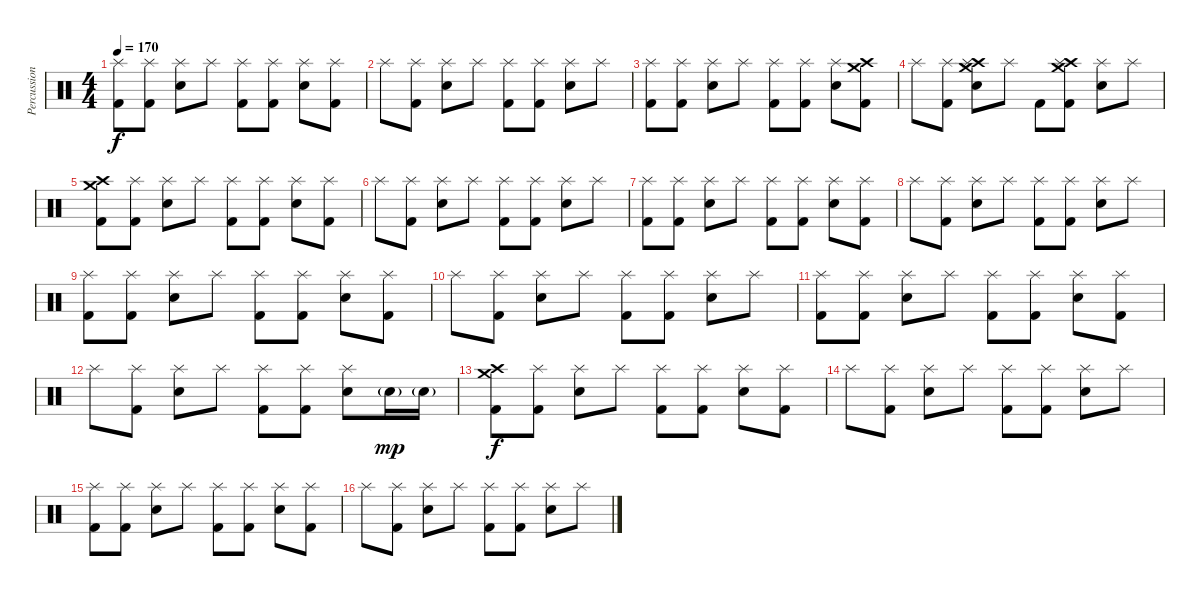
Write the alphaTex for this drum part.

\track ("Percussion" "Percussion") {instrument percussion}
\staff {score}
\articulation defaults
\ts (4 4)
\tempo 170
\clef neutral
\ks c
("Splash (hit)" "Kick (hit) 2").8{dy f} ("Splash (hit)" "Kick (hit) 2").8 ("Splash (hit)" "Electric Snare (hit)").8 "Splash (hit)".8 ("Splash (hit)" "Kick (hit) 2").8 ("Splash (hit)" "Kick (hit) 2").8 ("Splash (hit)" "Electric Snare (hit)").8 ("Splash (hit)" "Kick (hit) 2").8 |
"Splash (hit)".8 ("Splash (hit)" "Kick (hit) 2").8 ("Splash (hit)" "Electric Snare (hit)").8 "Splash (hit)".8 ("Splash (hit)" "Kick (hit) 2").8 ("Splash (hit)" "Kick (hit) 2").8 ("Splash (hit)" "Electric Snare (hit)").8 "Splash (hit)".8 |
("Splash (hit)" "Kick (hit) 2").8 ("Splash (hit)" "Kick (hit) 2").8 ("Splash (hit)" "Electric Snare (hit)").8 "Splash (hit)".8 ("Splash (hit)" "Kick (hit) 2").8 ("Splash (hit)" "Kick (hit) 2").8 ("Splash (hit)" "Electric Snare (hit)").8 ("Crash medium (hit)" "Crash high (hit)" "Kick (hit) 2").8 |
"Splash (hit)".8 ("Splash (hit)" "Kick (hit) 2").8 ("Crash medium (hit)" "Crash high (hit)" "Splash (hit)" "Electric Snare (hit)").8 "Splash (hit)".8 "Kick (hit) 2".8 ("Crash medium (hit)" "Crash high (hit)" "Splash (hit)" "Kick (hit) 2").8 ("Splash (hit)" "Electric Snare (hit)").8 "Splash (hit)".8 |
("Crash medium (hit)" "Crash high (hit)" "Kick (hit) 2").8 ("Splash (hit)" "Kick (hit) 2").8 ("Splash (hit)" "Electric Snare (hit)").8 "Splash (hit)".8 ("Splash (hit)" "Kick (hit) 2").8 ("Splash (hit)" "Kick (hit) 2").8 ("Splash (hit)" "Electric Snare (hit)").8 ("Splash (hit)" "Kick (hit) 2").8 |
"Splash (hit)".8 ("Splash (hit)" "Kick (hit) 2").8 ("Splash (hit)" "Electric Snare (hit)").8 "Splash (hit)".8 ("Splash (hit)" "Kick (hit) 2").8 ("Splash (hit)" "Kick (hit) 2").8 ("Splash (hit)" "Electric Snare (hit)").8 "Splash (hit)".8 |
("Splash (hit)" "Kick (hit) 2").8 ("Splash (hit)" "Kick (hit) 2").8 ("Splash (hit)" "Electric Snare (hit)").8 "Splash (hit)".8 ("Splash (hit)" "Kick (hit) 2").8 ("Splash (hit)" "Kick (hit) 2").8 ("Splash (hit)" "Electric Snare (hit)").8 ("Splash (hit)" "Kick (hit) 2").8 |
"Splash (hit)".8 ("Splash (hit)" "Kick (hit) 2").8 ("Splash (hit)" "Electric Snare (hit)").8 "Splash (hit)".8 ("Splash (hit)" "Kick (hit) 2").8 ("Splash (hit)" "Kick (hit) 2").8 ("Splash (hit)" "Electric Snare (hit)").8 "Splash (hit)".8 |
("Splash (hit)" "Kick (hit) 2").8 ("Splash (hit)" "Kick (hit) 2").8 ("Splash (hit)" "Electric Snare (hit)").8 "Splash (hit)".8 ("Splash (hit)" "Kick (hit) 2").8 ("Splash (hit)" "Kick (hit) 2").8 ("Splash (hit)" "Electric Snare (hit)").8 ("Splash (hit)" "Kick (hit) 2").8 |
"Splash (hit)".8 ("Splash (hit)" "Kick (hit) 2").8 ("Splash (hit)" "Electric Snare (hit)").8 "Splash (hit)".8 ("Splash (hit)" "Kick (hit) 2").8 ("Splash (hit)" "Kick (hit) 2").8 ("Splash (hit)" "Electric Snare (hit)").8 "Splash (hit)".8 |
("Splash (hit)" "Kick (hit) 2").8 ("Splash (hit)" "Kick (hit) 2").8 ("Splash (hit)" "Electric Snare (hit)").8 "Splash (hit)".8 ("Splash (hit)" "Kick (hit) 2").8 ("Splash (hit)" "Kick (hit) 2").8 ("Splash (hit)" "Electric Snare (hit)").8 ("Splash (hit)" "Kick (hit) 2").8 |
"Splash (hit)".8 ("Splash (hit)" "Kick (hit) 2").8 ("Splash (hit)" "Electric Snare (hit)").8 "Splash (hit)".8 ("Splash (hit)" "Kick (hit) 2").8 ("Splash (hit)" "Kick (hit) 2").8 ("Splash (hit)" "Electric Snare (hit)").8 "Electric Snare (hit)"{g}.16{dy mp} "Electric Snare (hit)"{g}.16 |
("Crash medium (hit)" "Crash high (hit)" "Kick (hit) 2").8{dy f} ("Splash (hit)" "Kick (hit) 2").8 ("Splash (hit)" "Electric Snare (hit)").8 "Splash (hit)".8 ("Splash (hit)" "Kick (hit) 2").8 ("Splash (hit)" "Kick (hit) 2").8 ("Splash (hit)" "Electric Snare (hit)").8 ("Splash (hit)" "Kick (hit) 2").8 |
"Splash (hit)".8 ("Splash (hit)" "Kick (hit) 2").8 ("Splash (hit)" "Electric Snare (hit)").8 "Splash (hit)".8 ("Splash (hit)" "Kick (hit) 2").8 ("Splash (hit)" "Kick (hit) 2").8 ("Splash (hit)" "Electric Snare (hit)").8 "Splash (hit)".8 |
("Splash (hit)" "Kick (hit) 2").8 ("Splash (hit)" "Kick (hit) 2").8 ("Splash (hit)" "Electric Snare (hit)").8 "Splash (hit)".8 ("Splash (hit)" "Kick (hit) 2").8 ("Splash (hit)" "Kick (hit) 2").8 ("Splash (hit)" "Electric Snare (hit)").8 ("Splash (hit)" "Kick (hit) 2").8 |
"Splash (hit)".8 ("Splash (hit)" "Kick (hit) 2").8 ("Splash (hit)" "Electric Snare (hit)").8 "Splash (hit)".8 ("Splash (hit)" "Kick (hit) 2").8 ("Splash (hit)" "Kick (hit) 2").8 ("Splash (hit)" "Electric Snare (hit)").8 "Splash (hit)".8
